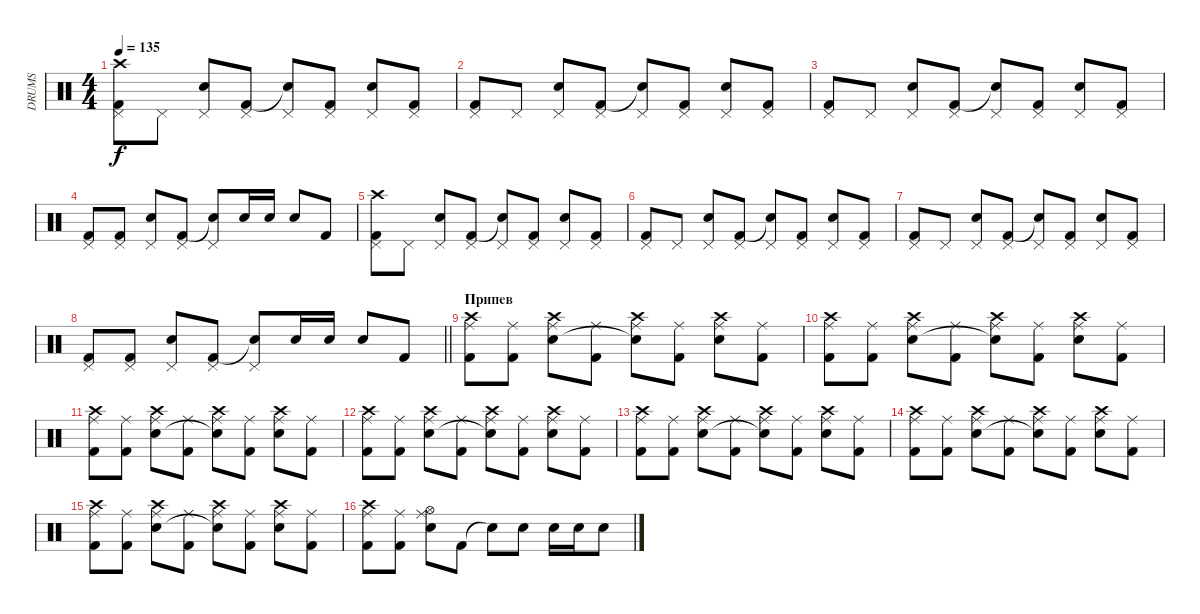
\track ("DRUMS" "DRUMS") {instrument percussion}
\staff {score}
\articulation defaults
\ts (4 4)
\tempo 135
\clef neutral
\ks c
("Crash high (hit)" "Pedal Hi-Hat (hit)" "Kick (hit) 2").8{dy f} "Pedal Hi-Hat (hit)".8 ("Pedal Hi-Hat (hit)" "Snare (hit) 2").8 ("Pedal Hi-Hat (hit)" "Kick (hit) 2").8 ("Pedal Hi-Hat (hit)" "Snare (hit)"{t}).8 ("Pedal Hi-Hat (hit)" "Kick (hit) 2").8 ("Pedal Hi-Hat (hit)" "Snare (hit) 2").8 ("Pedal Hi-Hat (hit)" "Kick (hit) 2").8 |
("Pedal Hi-Hat (hit)" "Kick (hit) 2").8 "Pedal Hi-Hat (hit)".8 ("Pedal Hi-Hat (hit)" "Snare (hit) 2").8 ("Pedal Hi-Hat (hit)" "Kick (hit) 2").8 ("Pedal Hi-Hat (hit)" "Snare (hit)"{t}).8 ("Pedal Hi-Hat (hit)" "Kick (hit) 2").8 ("Pedal Hi-Hat (hit)" "Snare (hit) 2").8 ("Pedal Hi-Hat (hit)" "Kick (hit) 2").8 |
("Pedal Hi-Hat (hit)" "Kick (hit) 2").8 "Pedal Hi-Hat (hit)".8 ("Pedal Hi-Hat (hit)" "Snare (hit) 2").8 ("Pedal Hi-Hat (hit)" "Kick (hit) 2").8 ("Pedal Hi-Hat (hit)" "Snare (hit)"{t}).8 ("Pedal Hi-Hat (hit)" "Kick (hit) 2").8 ("Pedal Hi-Hat (hit)" "Snare (hit) 2").8 ("Pedal Hi-Hat (hit)" "Kick (hit) 2").8 |
("Pedal Hi-Hat (hit)" "Kick (hit) 2").8 ("Pedal Hi-Hat (hit)" "Kick (hit) 2").8 ("Pedal Hi-Hat (hit)" "Snare (hit) 2").8 ("Pedal Hi-Hat (hit)" "Kick (hit) 2").8 ("Pedal Hi-Hat (hit)" "Snare (hit)"{t}).8 "Snare (hit) 2".16 "Snare (hit) 2".16 "Snare (hit) 2".8 "Kick (hit) 2".8 |
("Crash high (hit)" "Pedal Hi-Hat (hit)" "Kick (hit) 2").8 "Pedal Hi-Hat (hit)".8 ("Pedal Hi-Hat (hit)" "Snare (hit) 2").8 ("Pedal Hi-Hat (hit)" "Kick (hit) 2").8 ("Pedal Hi-Hat (hit)" "Snare (hit)"{t}).8 ("Pedal Hi-Hat (hit)" "Kick (hit) 2").8 ("Pedal Hi-Hat (hit)" "Snare (hit) 2").8 ("Pedal Hi-Hat (hit)" "Kick (hit) 2").8 |
("Pedal Hi-Hat (hit)" "Kick (hit) 2").8 "Pedal Hi-Hat (hit)".8 ("Pedal Hi-Hat (hit)" "Snare (hit) 2").8 ("Pedal Hi-Hat (hit)" "Kick (hit) 2").8 ("Pedal Hi-Hat (hit)" "Snare (hit)"{t}).8 ("Pedal Hi-Hat (hit)" "Kick (hit) 2").8 ("Pedal Hi-Hat (hit)" "Snare (hit) 2").8 ("Pedal Hi-Hat (hit)" "Kick (hit) 2").8 |
("Pedal Hi-Hat (hit)" "Kick (hit) 2").8 "Pedal Hi-Hat (hit)".8 ("Pedal Hi-Hat (hit)" "Snare (hit) 2").8 ("Pedal Hi-Hat (hit)" "Kick (hit) 2").8 ("Pedal Hi-Hat (hit)" "Snare (hit)"{t}).8 ("Pedal Hi-Hat (hit)" "Kick (hit) 2").8 ("Pedal Hi-Hat (hit)" "Snare (hit) 2").8 ("Pedal Hi-Hat (hit)" "Kick (hit) 2").8 |
\barLineRight lightlight
("Pedal Hi-Hat (hit)" "Kick (hit) 2").8 ("Pedal Hi-Hat (hit)" "Kick (hit) 2").8 ("Pedal Hi-Hat (hit)" "Snare (hit) 2").8 ("Pedal Hi-Hat (hit)" "Kick (hit) 2").8 ("Pedal Hi-Hat (hit)" "Snare (hit)"{t}).8 "Snare (hit) 2".16 "Snare (hit) 2".16 "Snare (hit) 2".8 "Kick (hit) 2".8 |
\section ("" "Припев")
("Crash high (hit)" "Ride (middle)" "Kick (hit) 2").8 ("Ride (middle)" "Kick (hit) 2").8 ("Crash high (hit)" "Ride (middle)" "Snare (hit) 2").8 ("Ride (middle)" "Kick (hit) 2").8 ("Crash high (hit)" "Ride (middle)" "Snare (hit)"{t}).8 ("Ride (middle)" "Kick (hit) 2").8 ("Crash high (hit)" "Ride (middle)" "Snare (hit) 2").8 ("Ride (middle)" "Kick (hit) 2").8 |
("Crash high (hit)" "Ride (middle)" "Kick (hit) 2").8 ("Ride (middle)" "Kick (hit) 2").8 ("Crash high (hit)" "Ride (middle)" "Snare (hit) 2").8 ("Ride (middle)" "Kick (hit) 2").8 ("Crash high (hit)" "Ride (middle)" "Snare (hit)"{t}).8 ("Ride (middle)" "Kick (hit) 2").8 ("Crash high (hit)" "Ride (middle)" "Snare (hit) 2").8 ("Ride (middle)" "Kick (hit) 2").8 |
("Crash high (hit)" "Ride (middle)" "Kick (hit) 2").8 ("Ride (middle)" "Kick (hit) 2").8 ("Crash high (hit)" "Ride (middle)" "Snare (hit) 2").8 ("Ride (middle)" "Kick (hit) 2").8 ("Crash high (hit)" "Ride (middle)" "Snare (hit)"{t}).8 ("Ride (middle)" "Kick (hit) 2").8 ("Crash high (hit)" "Ride (middle)" "Snare (hit) 2").8 ("Ride (middle)" "Kick (hit) 2").8 |
("Crash high (hit)" "Ride (middle)" "Kick (hit) 2").8 ("Ride (middle)" "Kick (hit) 2").8 ("Crash high (hit)" "Ride (middle)" "Snare (hit) 2").8 ("Ride (middle)" "Kick (hit) 2").8 ("Crash high (hit)" "Ride (middle)" "Snare (hit)"{t}).8 ("Ride (middle)" "Kick (hit) 2").8 ("Crash high (hit)" "Ride (middle)" "Snare (hit) 2").8 ("Ride (middle)" "Kick (hit) 2").8 |
("Crash high (hit)" "Ride (middle)" "Kick (hit) 2").8 ("Ride (middle)" "Kick (hit) 2").8 ("Crash high (hit)" "Ride (middle)" "Snare (hit) 2").8 ("Ride (middle)" "Kick (hit) 2").8 ("Crash high (hit)" "Ride (middle)" "Snare (hit)"{t}).8 ("Ride (middle)" "Kick (hit) 2").8 ("Crash high (hit)" "Ride (middle)" "Snare (hit) 2").8 ("Ride (middle)" "Kick (hit) 2").8 |
("Crash high (hit)" "Ride (middle)" "Kick (hit) 2").8 ("Ride (middle)" "Kick (hit) 2").8 ("Crash high (hit)" "Ride (middle)" "Snare (hit) 2").8 ("Ride (middle)" "Kick (hit) 2").8 ("Crash high (hit)" "Ride (middle)" "Snare (hit)"{t}).8 ("Ride (middle)" "Kick (hit) 2").8 ("Crash high (hit)" "Ride (middle)" "Snare (hit) 2").8 ("Ride (middle)" "Kick (hit) 2").8 |
("Crash high (hit)" "Ride (middle)" "Kick (hit) 2").8 ("Ride (middle)" "Kick (hit) 2").8 ("Crash high (hit)" "Ride (middle)" "Snare (hit) 2").8 ("Ride (middle)" "Kick (hit) 2").8 ("Crash high (hit)" "Ride (middle)" "Snare (hit)"{t}).8 ("Ride (middle)" "Kick (hit) 2").8 ("Crash high (hit)" "Ride (middle)" "Snare (hit) 2").8 ("Ride (middle)" "Kick (hit) 2").8 |
("Crash high (hit)" "Ride (middle)" "Kick (hit) 2").8 ("Ride (middle)" "Kick (hit) 2").8 ("Hi-Hat (open)" "Ride (middle)" "Snare (hit) 2").8 "Kick (hit) 2".8 "Snare (hit)"{t}.8 "Snare (hit) 2".8 "Snare (hit) 2".16 "Snare (hit) 2".16 "Snare (hit) 2".8
